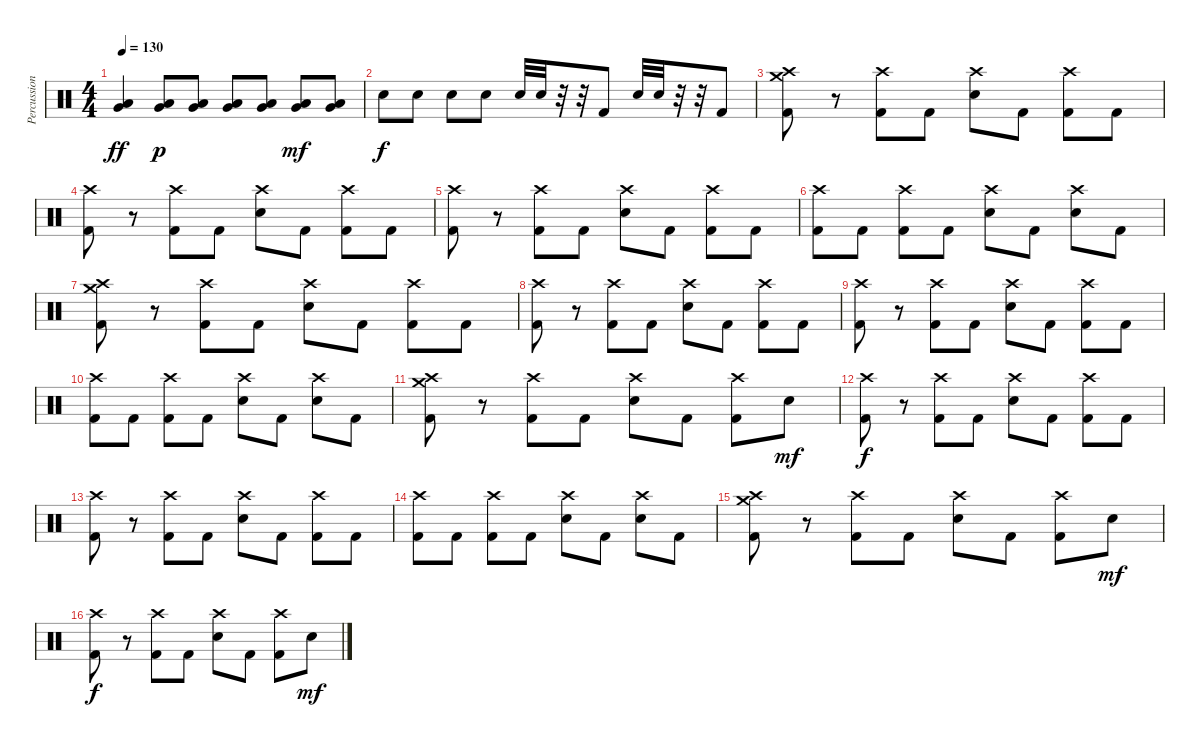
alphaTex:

\track ("Percussions" "Percussion") {instrument percussion}
\staff {score}
\articulation defaults
\ts (4 4)
\tempo 130
\clef neutral
\ks c
("Low Floor Tom (hit)" "Very Low Tom (hit)").4{dy ff} ("Low Floor Tom (hit)" "Very Low Tom (hit)").8{dy p} ("Low Floor Tom (hit)" "Very Low Tom (hit)").8 ("Low Floor Tom (hit)" "Very Low Tom (hit)").8 ("Low Floor Tom (hit)" "Very Low Tom (hit)").8 ("Low Floor Tom (hit)" "Very Low Tom (hit)").8{dy mf} ("Low Floor Tom (hit)" "Very Low Tom (hit)").8 |
"Electric Snare (hit)".8{dy f} "Electric Snare (hit)".8 "Electric Snare (hit)".8 "Electric Snare (hit)".8 "Electric Snare (hit)".32 "Electric Snare (hit)".32 r.32 r.32 "Kick (hit) 2".8 "Electric Snare (hit)".32 "Electric Snare (hit)".32 r.32 r.32 "Kick (hit) 2".8 |
("Kick (hit) 2" "Crash medium (hit)" "Crash high (hit)").8 r.8 ("Kick (hit) 2" "Crash high (hit)").8 "Kick (hit) 2".8 ("Electric Snare (hit)" "Crash high (hit)").8 "Kick (hit) 2".8 ("Kick (hit) 2" "Crash high (hit)").8 "Kick (hit) 2".8 |
("Kick (hit) 2" "Crash high (hit)").8 r.8 ("Kick (hit) 2" "Crash high (hit)").8 "Kick (hit) 2".8 ("Electric Snare (hit)" "Crash high (hit)").8 "Kick (hit) 2".8 ("Kick (hit) 2" "Crash high (hit)").8 "Kick (hit) 2".8 |
("Kick (hit) 2" "Crash high (hit)").8 r.8 ("Kick (hit) 2" "Crash high (hit)").8 "Kick (hit) 2".8 ("Electric Snare (hit)" "Crash high (hit)").8 "Kick (hit) 2".8 ("Kick (hit) 2" "Crash high (hit)").8 "Kick (hit) 2".8 |
("Kick (hit) 2" "Crash high (hit)").8 "Kick (hit) 2".8 ("Kick (hit) 2" "Crash high (hit)").8 "Kick (hit) 2".8 ("Electric Snare (hit)" "Crash high (hit)").8 "Kick (hit) 2".8 ("Electric Snare (hit)" "Crash high (hit)").8 "Kick (hit) 2".8 |
("Kick (hit) 2" "Crash medium (hit)" "Crash high (hit)").8 r.8 ("Kick (hit) 2" "Crash high (hit)").8 "Kick (hit) 2".8 ("Electric Snare (hit)" "Crash high (hit)").8 "Kick (hit) 2".8 ("Kick (hit) 2" "Crash high (hit)").8 "Kick (hit) 2".8 |
("Kick (hit) 2" "Crash high (hit)").8 r.8 ("Kick (hit) 2" "Crash high (hit)").8 "Kick (hit) 2".8 ("Electric Snare (hit)" "Crash high (hit)").8 "Kick (hit) 2".8 ("Kick (hit) 2" "Crash high (hit)").8 "Kick (hit) 2".8 |
("Kick (hit) 2" "Crash high (hit)").8 r.8 ("Kick (hit) 2" "Crash high (hit)").8 "Kick (hit) 2".8 ("Electric Snare (hit)" "Crash high (hit)").8 "Kick (hit) 2".8 ("Kick (hit) 2" "Crash high (hit)").8 "Kick (hit) 2".8 |
("Kick (hit) 2" "Crash high (hit)").8 "Kick (hit) 2".8 ("Kick (hit) 2" "Crash high (hit)").8 "Kick (hit) 2".8 ("Electric Snare (hit)" "Crash high (hit)").8 "Kick (hit) 2".8 ("Electric Snare (hit)" "Crash high (hit)").8 "Kick (hit) 2".8 |
("Kick (hit) 2" "Crash medium (hit)" "Crash high (hit)").8 r.8 ("Kick (hit) 2" "Crash high (hit)").8 "Kick (hit) 2".8 ("Electric Snare (hit)" "Crash high (hit)").8 "Kick (hit) 2".8 ("Kick (hit) 2" "Crash high (hit)").8 "Electric Snare (hit)".8{dy mf} |
("Kick (hit) 2" "Crash high (hit)").8{dy f} r.8 ("Kick (hit) 2" "Crash high (hit)").8 "Kick (hit) 2".8 ("Electric Snare (hit)" "Crash high (hit)").8 "Kick (hit) 2".8 ("Kick (hit) 2" "Crash high (hit)").8 "Kick (hit) 2".8 |
("Kick (hit) 2" "Crash high (hit)").8 r.8 ("Kick (hit) 2" "Crash high (hit)").8 "Kick (hit) 2".8 ("Electric Snare (hit)" "Crash high (hit)").8 "Kick (hit) 2".8 ("Kick (hit) 2" "Crash high (hit)").8 "Kick (hit) 2".8 |
("Kick (hit) 2" "Crash high (hit)").8 "Kick (hit) 2".8 ("Kick (hit) 2" "Crash high (hit)").8 "Kick (hit) 2".8 ("Electric Snare (hit)" "Crash high (hit)").8 "Kick (hit) 2".8 ("Electric Snare (hit)" "Crash high (hit)").8 "Kick (hit) 2".8 |
("Kick (hit) 2" "Crash medium (hit)" "Crash high (hit)").8 r.8 ("Kick (hit) 2" "Crash high (hit)").8 "Kick (hit) 2".8 ("Electric Snare (hit)" "Crash high (hit)").8 "Kick (hit) 2".8 ("Kick (hit) 2" "Crash high (hit)").8 "Electric Snare (hit)".8{dy mf} |
("Kick (hit) 2" "Crash high (hit)").8{dy f} r.8 ("Kick (hit) 2" "Crash high (hit)").8 "Kick (hit) 2".8 ("Electric Snare (hit)" "Crash high (hit)").8 "Kick (hit) 2".8 ("Kick (hit) 2" "Crash high (hit)").8 "Electric Snare (hit)".8{dy mf}
